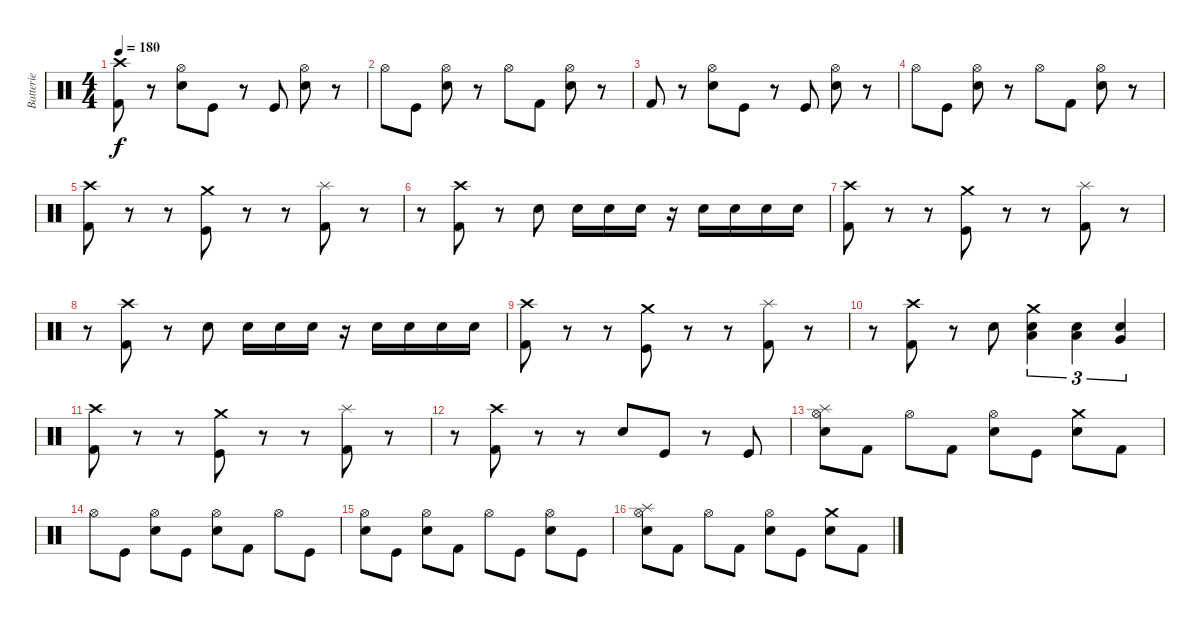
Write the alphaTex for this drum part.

\track ("Batterie" "Batterie") {instrument percussion}
\staff {score}
\articulation defaults
\ts (4 4)
\tempo 180
\clef neutral
\ks c
("Crash high (hit)" "Kick (hit) 2").8{dy f} r.8 ("Hi-Hat (open)" "Electric Snare (hit)").8 "Kick (hit)".8 r.8 "Kick (hit)".8 ("Hi-Hat (open)" "Electric Snare (hit)").8 r.8 |
"Hi-Hat (open)".8 "Kick (hit)".8 ("Hi-Hat (open)" "Electric Snare (hit)").8 r.8 "Hi-Hat (open)".8 "Kick (hit) 2".8 ("Hi-Hat (open)" "Electric Snare (hit)").8 r.8 |
"Kick (hit) 2".8 r.8 ("Hi-Hat (open)" "Electric Snare (hit)").8 "Kick (hit)".8 r.8 "Kick (hit)".8 ("Hi-Hat (open)" "Electric Snare (hit)").8 r.8 |
"Hi-Hat (open)".8 "Kick (hit)".8 ("Hi-Hat (open)" "Electric Snare (hit)").8 r.8 "Hi-Hat (open)".8 "Kick (hit) 2".8 ("Hi-Hat (open)" "Electric Snare (hit)").8 r.8 |
("Crash high (hit)" "Kick (hit) 2").8 r.8 r.8 ("Crash medium (hit)" "Kick (hit)").8 r.8 r.8 ("Splash (hit)" "Kick (hit) 2").8 r.8 |
r.8 ("Crash high (hit)" "Kick (hit) 2").8 r.8 "Electric Snare (hit)".8 "Electric Snare (hit)".16 "Electric Snare (hit)".16 "Electric Snare (hit)".16 r.16 "Electric Snare (hit)".16 "Electric Snare (hit)".16 "Electric Snare (hit)".16 "Electric Snare (hit)".16 |
("Crash high (hit)" "Kick (hit) 2").8 r.8 r.8 ("Crash medium (hit)" "Kick (hit)").8 r.8 r.8 ("Splash (hit)" "Kick (hit) 2").8 r.8 |
r.8 ("Crash high (hit)" "Kick (hit) 2").8 r.8 "Electric Snare (hit)".8 "Electric Snare (hit)".16 "Electric Snare (hit)".16 "Electric Snare (hit)".16 r.16 "Electric Snare (hit)".16 "Electric Snare (hit)".16 "Electric Snare (hit)".16 "Electric Snare (hit)".16 |
("Crash high (hit)" "Kick (hit) 2").8 r.8 r.8 ("Crash medium (hit)" "Kick (hit)").8 r.8 r.8 ("Splash (hit)" "Kick (hit) 2").8 r.8 |
r.8 ("Crash high (hit)" "Kick (hit) 2").8 r.8 "Electric Snare (hit)".8 ("Low Tom (hit)" "Crash medium (hit)" "Electric Snare (hit)").4{tu (3 2)} ("Low Tom (hit)" "Electric Snare (hit)").4{tu (3 2)} ("Very Low Tom (hit)" "Electric Snare (hit)").4{tu (3 2)} |
("Crash high (hit)" "Kick (hit) 2").8 r.8 r.8 ("Crash medium (hit)" "Kick (hit)").8 r.8 r.8 ("Splash (hit)" "Kick (hit) 2").8 r.8 |
r.8 ("Crash high (hit)" "Kick (hit) 2").8 r.8 r.8 "Electric Snare (hit)".8 "Kick (hit)".8 r.8 "Kick (hit)".8 |
("Splash (hit)" "Hi-Hat (open)" "Electric Snare (hit)").8 "Kick (hit) 2".8 "Hi-Hat (open)".8 "Kick (hit) 2".8 ("Hi-Hat (open)" "Electric Snare (hit)").8 "Kick (hit)".8 ("Crash medium (hit)" "Electric Snare (hit)").8 "Kick (hit) 2".8 |
"Hi-Hat (open)".8 "Kick (hit)".8 ("Hi-Hat (open)" "Electric Snare (hit)").8 "Kick (hit)".8 ("Hi-Hat (open)" "Electric Snare (hit)").8 "Kick (hit) 2".8 "Hi-Hat (open)".8 "Kick (hit)".8 |
("Hi-Hat (open)" "Electric Snare (hit)").8 "Kick (hit)".8 ("Hi-Hat (open)" "Electric Snare (hit)").8 "Kick (hit) 2".8 "Hi-Hat (open)".8 "Kick (hit)".8 ("Hi-Hat (open)" "Electric Snare (hit)").8 "Kick (hit)".8 |
("Splash (hit)" "Hi-Hat (open)" "Electric Snare (hit)").8 "Kick (hit) 2".8 "Hi-Hat (open)".8 "Kick (hit) 2".8 ("Hi-Hat (open)" "Electric Snare (hit)").8 "Kick (hit)".8 ("Crash medium (hit)" "Electric Snare (hit)").8 "Kick (hit) 2".8
